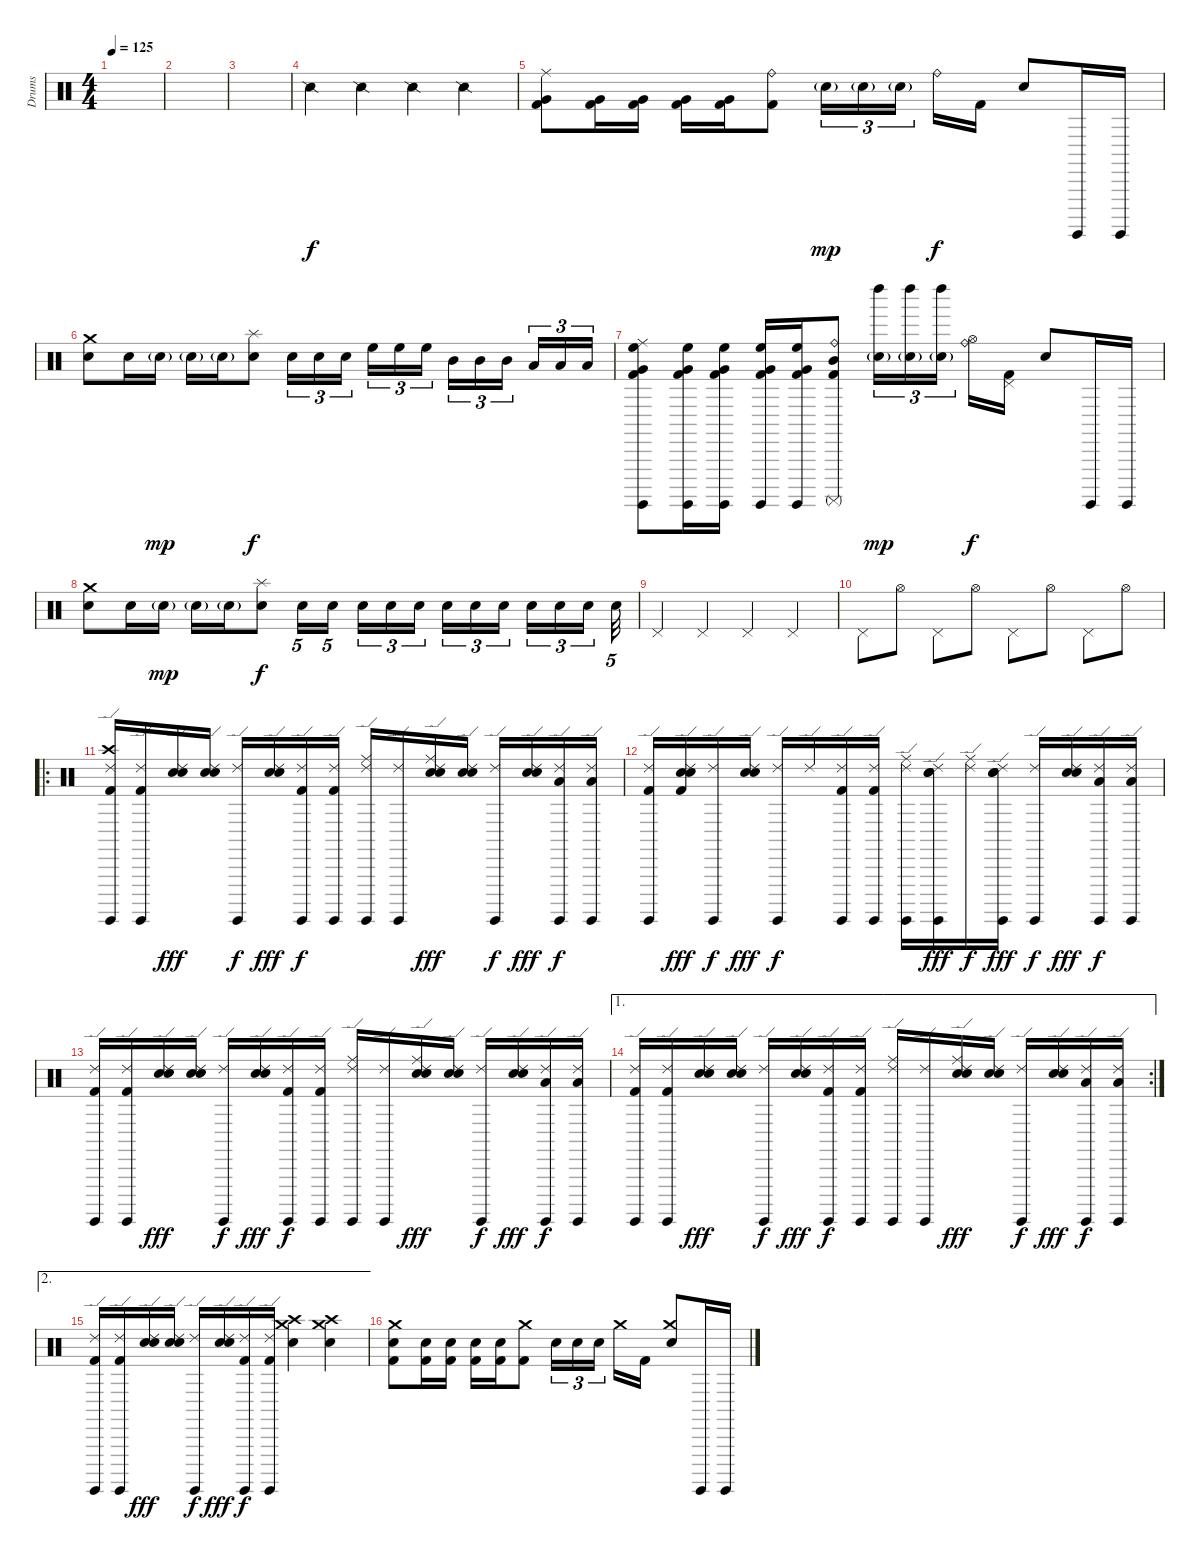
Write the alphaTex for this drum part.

\track ("Drums" "Drums") {instrument percussion}
\staff {score}
\articulation defaults
\ts (4 4)
\tempo 125
\clef neutral
\ks c
|
|
|
"Snare (side stick) 2".4 "Snare (side stick) 2".4 "Snare (side stick) 2".4 "Snare (side stick) 2".4 |
("Ride (middle)" "Very Low Tom (hit)" "Kick (hit) 2").8 ("Very Low Tom (hit)" "Kick (hit) 2").16 ("Very Low Tom (hit)" "Kick (hit) 2").16 ("Very Low Tom (hit)" "Kick (hit) 2").16 ("Very Low Tom (hit)" "Kick (hit) 2").16 ("Ride (bell)" "Kick (hit) 2").8 "Electric Snare (hit)"{g}.16{tu (3 2) dy mp} "Electric Snare (hit)"{g}.16{tu (3 2)} "Electric Snare (hit)"{g}.16{tu (3 2)} "Ride (bell)".16{dy f} "Kick (hit) 2".16 "Electric Snare (hit)".8 "Surdo (hit)".16 "Surdo (hit)".16 |
("Crash medium (hit)" "Electric Snare (hit)").8 "Electric Snare (hit)".16 "Electric Snare (hit)"{g}.16{dy mp} "Electric Snare (hit)"{g}.16 "Electric Snare (hit)"{g}.16 ("Splash (hit)" "Electric Snare (hit)").8{dy f} "Electric Snare (hit)".16{tu (3 2)} "Electric Snare (hit)".16{tu (3 2)} "Electric Snare (hit)".16{tu (3 2)} "High Floor Tom (hit)".16{tu (3 2)} "High Floor Tom (hit)".16{tu (3 2)} "High Floor Tom (hit)".16{tu (3 2)} "Mid Tom (hit)".16{tu (3 2)} "Mid Tom (hit)".16{tu (3 2)} "Mid Tom (hit)".16{tu (3 2)} "Low Tom (hit)".16{tu (3 2)} "Low Tom (hit)".16{tu (3 2)} "Low Tom (hit)".16{tu (3 2)} |
("Ride (middle)" "Very Low Tom (hit)" "High Floor Tom (hit)" "Surdo (hit)" "Kick (hit) 2").8 ("Very Low Tom (hit)" "High Floor Tom (hit)" "Surdo (hit)" "Kick (hit) 2").16 ("Very Low Tom (hit)" "High Floor Tom (hit)" "Surdo (hit)" "Kick (hit) 2").16 ("Very Low Tom (hit)" "High Floor Tom (hit)" "Surdo (hit)" "Kick (hit) 2").16 ("Very Low Tom (hit)" "High Floor Tom (hit)" "Surdo (hit)" "Kick (hit) 2").16 ("Ride (bell)" "Mid Tom (hit)" "Surdo (mute)" "Kick (hit) 2").8 ("Electric Snare (hit)"{g} "Left Maraca (hit)").16{tu (3 2) dy mp} ("Electric Snare (hit)"{g} "Left Maraca (hit)").16{tu (3 2)} ("Electric Snare (hit)"{g} "Left Maraca (hit)").16{tu (3 2)} ("Ride (bell)" "Hi-Hat (open)").16{dy f} ("Pedal Hi-Hat (hit)" "Kick (hit) 2").16 "Electric Snare (hit)".8 "Surdo (hit)".16 "Surdo (hit)".16 |
("Crash medium (hit)" "Electric Snare (hit)").8 "Electric Snare (hit)".16 "Electric Snare (hit)"{g}.16{dy mp} "Electric Snare (hit)"{g}.16 "Electric Snare (hit)"{g}.16 ("Splash (hit)" "Electric Snare (hit)").8{dy f} "Electric Snare (hit)".16{tu (5 4)} "Electric Snare (hit)".16{tu (5 4)} "Electric Snare (hit)".16{tu (3 2)} "Electric Snare (hit)".16{tu (3 2)} "Electric Snare (hit)".16{tu (3 2)} "Electric Snare (hit)".16{tu (3 2)} "Electric Snare (hit)".16{tu (3 2)} "Electric Snare (hit)".16{tu (3 2)} "Electric Snare (hit)".16{tu (3 2)} "Electric Snare (hit)".16{tu (3 2)} "Electric Snare (hit)".16{tu (3 2)} "Electric Snare (hit)".32{tu (5 4)} |
"Pedal Hi-Hat (hit)".4 "Pedal Hi-Hat (hit)".4 "Pedal Hi-Hat (hit)".4 "Pedal Hi-Hat (hit)".4 |
"Pedal Hi-Hat (hit)".8 "Hi-Hat (open)".8 "Pedal Hi-Hat (hit)".8 "Hi-Hat (open)".8 "Pedal Hi-Hat (hit)".8 "Hi-Hat (open)".8 "Pedal Hi-Hat (hit)".8 "Hi-Hat (open)".8 |
\ro
("Crash high (hit)" "Surdo (hit)" "Ride (edge) 2" "Kick (hit) 2").16 ("Surdo (hit)" "Ride (edge) 2" "Kick (hit) 2").16 ("Ride (edge) 2" "Electric Snare (hit)" "Snare (hit) 2").16{dy fff} ("Ride (edge) 2" "Electric Snare (hit)" "Snare (hit) 2").16 ("Surdo (hit)" "Ride (edge) 2").16{dy f} ("Ride (edge) 2" "Electric Snare (hit)" "Snare (hit) 2").16{dy fff} ("Surdo (hit)" "Ride (edge) 2" "Kick (hit) 2").16{dy f} ("Surdo (hit)" "Ride (edge) 2" "Kick (hit) 2").16 ("Surdo (hit)" "Ride (edge) 2" "Ride (middle)").16 ("Surdo (hit)" "Ride (edge) 2").16 ("Ride (edge) 2" "Electric Snare (hit)" "Snare (hit) 2" "Ride (middle)").16{dy fff} ("Ride (edge) 2" "Electric Snare (hit)" "Snare (hit) 2").16 ("Surdo (hit)" "Ride (edge) 2").16{dy f} ("Ride (edge) 2" "Electric Snare (hit)" "Snare (hit) 2").16{dy fff} ("Surdo (hit)" "Ride (edge) 2" "Low Tom (hit)").16{dy f} ("Surdo (hit)" "Ride (edge) 2" "Low Tom (hit)").16 |
("Surdo (hit)" "Ride (edge) 2" "Kick (hit) 2").16 ("Ride (edge) 2" "Electric Snare (hit)" "Snare (hit) 2" "Kick (hit) 2").16{dy fff} ("Surdo (hit)" "Ride (edge) 2").16{dy f} ("Ride (edge) 2" "Electric Snare (hit)" "Snare (hit) 2").16{dy fff} ("Surdo (hit)" "Ride (edge) 2").16{dy f} "Ride (edge) 2".16 ("Surdo (hit)" "Ride (edge) 2" "Kick (hit) 2").16 ("Surdo (hit)" "Ride (edge) 2" "Kick (hit) 2").16 ("Surdo (hit)" "Ride (edge) 2" "Ride (middle)").16 ("Surdo (hit)" "Ride (edge) 2" "Electric Snare (hit)" "Snare (hit) 2").16{dy fff} ("Ride (edge) 2" "Ride (middle)").16{dy f} ("Surdo (hit)" "Ride (edge) 2" "Electric Snare (hit)" "Snare (hit) 2").16{dy fff} ("Surdo (hit)" "Ride (edge) 2").16{dy f} ("Ride (edge) 2" "Electric Snare (hit)" "Snare (hit) 2").16{dy fff} ("Surdo (hit)" "Ride (edge) 2" "Low Tom (hit)").16{dy f} ("Surdo (hit)" "Ride (edge) 2" "Low Tom (hit)").16 |
("Surdo (hit)" "Ride (edge) 2" "Kick (hit) 2").16 ("Surdo (hit)" "Ride (edge) 2" "Kick (hit) 2").16 ("Ride (edge) 2" "Electric Snare (hit)" "Snare (hit) 2").16{dy fff} ("Ride (edge) 2" "Electric Snare (hit)" "Snare (hit) 2").16 ("Surdo (hit)" "Ride (edge) 2").16{dy f} ("Ride (edge) 2" "Electric Snare (hit)" "Snare (hit) 2").16{dy fff} ("Surdo (hit)" "Ride (edge) 2" "Kick (hit) 2").16{dy f} ("Surdo (hit)" "Ride (edge) 2" "Kick (hit) 2").16 ("Surdo (hit)" "Ride (edge) 2" "Ride (middle)").16 ("Surdo (hit)" "Ride (edge) 2").16 ("Ride (edge) 2" "Electric Snare (hit)" "Snare (hit) 2" "Ride (middle)").16{dy fff} ("Ride (edge) 2" "Electric Snare (hit)" "Snare (hit) 2").16 ("Surdo (hit)" "Ride (edge) 2").16{dy f} ("Ride (edge) 2" "Electric Snare (hit)" "Snare (hit) 2").16{dy fff} ("Surdo (hit)" "Ride (edge) 2" "Low Tom (hit)").16{dy f} ("Surdo (hit)" "Ride (edge) 2" "Low Tom (hit)").16 |
\ae 1
\rc 2
("Surdo (hit)" "Ride (edge) 2" "Kick (hit) 2").16 ("Surdo (hit)" "Ride (edge) 2" "Kick (hit) 2").16 ("Ride (edge) 2" "Electric Snare (hit)" "Snare (hit) 2").16{dy fff} ("Ride (edge) 2" "Electric Snare (hit)" "Snare (hit) 2").16 ("Surdo (hit)" "Ride (edge) 2").16{dy f} ("Ride (edge) 2" "Electric Snare (hit)" "Snare (hit) 2").16{dy fff} ("Surdo (hit)" "Ride (edge) 2" "Kick (hit) 2").16{dy f} ("Surdo (hit)" "Ride (edge) 2" "Kick (hit) 2").16 ("Surdo (hit)" "Ride (edge) 2" "Ride (middle)").16 ("Surdo (hit)" "Ride (edge) 2").16 ("Ride (edge) 2" "Electric Snare (hit)" "Snare (hit) 2" "Ride (middle)").16{dy fff} ("Ride (edge) 2" "Electric Snare (hit)" "Snare (hit) 2").16 ("Surdo (hit)" "Ride (edge) 2").16{dy f} ("Ride (edge) 2" "Electric Snare (hit)" "Snare (hit) 2").16{dy fff} ("Surdo (hit)" "Ride (edge) 2" "Low Tom (hit)").16{dy f} ("Surdo (hit)" "Ride (edge) 2" "Low Tom (hit)").16 |
\ae 2
("Surdo (hit)" "Ride (edge) 2" "Kick (hit) 2").16 ("Surdo (hit)" "Ride (edge) 2" "Kick (hit) 2").16 ("Ride (edge) 2" "Electric Snare (hit)" "Snare (hit) 2").16{dy fff} ("Ride (edge) 2" "Electric Snare (hit)" "Snare (hit) 2").16 ("Surdo (hit)" "Ride (edge) 2").16{dy f} ("Ride (edge) 2" "Electric Snare (hit)" "Snare (hit) 2").16{dy fff} ("Surdo (hit)" "Ride (edge) 2" "Kick (hit) 2").16{dy f} ("Surdo (hit)" "Ride (edge) 2" "Kick (hit) 2").16 ("Crash high (hit)" "Crash medium (hit)" "Electric Snare (hit)").4 ("Crash high (hit)" "Crash medium (hit)" "Electric Snare (hit)").4 |
("Crash medium (hit)" "Electric Snare (hit)" "Kick (hit) 2").8 ("Electric Snare (hit)" "Kick (hit) 2").16 ("Electric Snare (hit)" "Kick (hit) 2").16 ("Electric Snare (hit)" "Kick (hit) 2").16 ("Electric Snare (hit)" "Kick (hit) 2").16 ("Crash medium (hit)" "Kick (hit) 2").8 "Electric Snare (hit)".16{tu (3 2)} "Electric Snare (hit)".16{tu (3 2)} "Electric Snare (hit)".16{tu (3 2)} "Crash medium (hit)".16 "Kick (hit) 2".16 ("Crash medium (hit)" "Electric Snare (hit)").8 "Surdo (hit)".16 "Surdo (hit)".16
